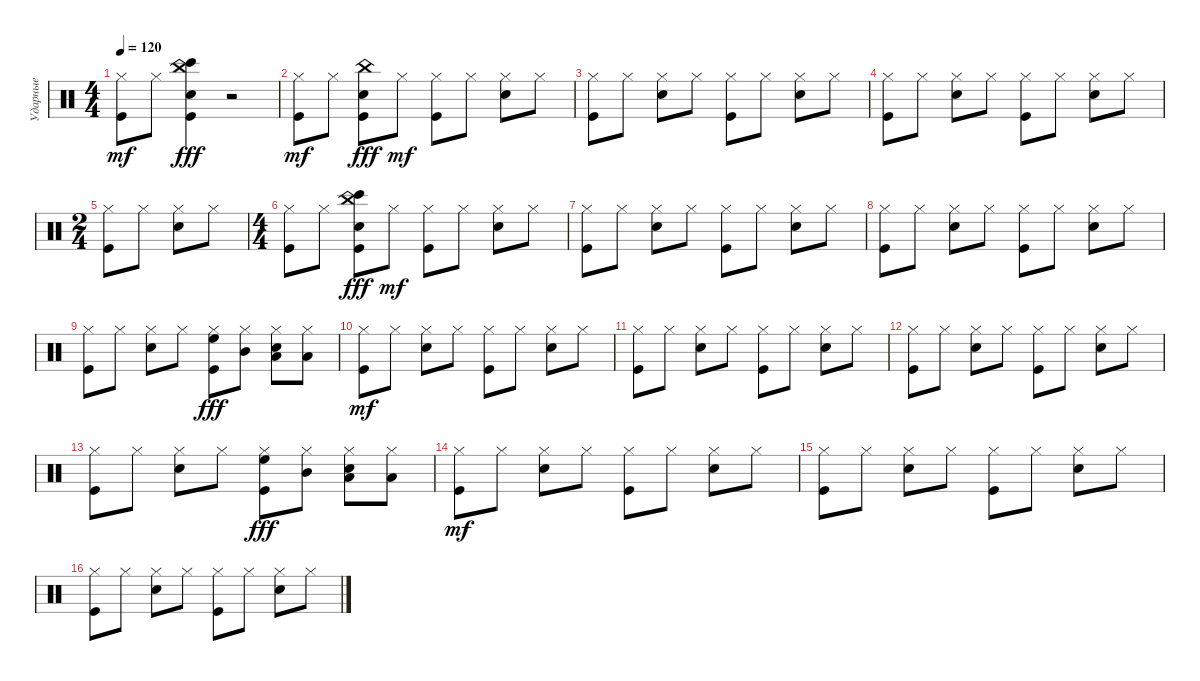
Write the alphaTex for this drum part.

\track ("Ударные" "Ударные") {instrument percussion}
\staff {score}
\articulation defaults
\ts (4 4)
\tempo 120
\clef neutral
\ks c
("Kick (hit)" "Hi-Hat (closed)").8{dy mf} "Hi-Hat (closed)".8 ("Kick (hit)" "Hand Clap (hit)" "China (hit)" "Bongo High (hit)").4{dy fff} r.2 |
("Kick (hit)" "Hi-Hat (closed)").8{dy mf} "Hi-Hat (closed)".8 ("Snare (hit) 2" "China (hit)" "Kick (hit)").8{dy fff} "Hi-Hat (closed)".8{dy mf} ("Kick (hit)" "Hi-Hat (closed)").8 "Hi-Hat (closed)".8 ("Snare (hit) 2" "Hi-Hat (closed)").8 "Hi-Hat (closed)".8 |
("Kick (hit)" "Hi-Hat (closed)").8 "Hi-Hat (closed)".8 ("Snare (hit) 2" "Hi-Hat (closed)").8 "Hi-Hat (closed)".8 ("Kick (hit)" "Hi-Hat (closed)").8 "Hi-Hat (closed)".8 ("Snare (hit) 2" "Hi-Hat (closed)").8 "Hi-Hat (closed)".8 |
("Kick (hit)" "Hi-Hat (closed)").8 "Hi-Hat (closed)".8 ("Snare (hit) 2" "Hi-Hat (closed)").8 "Hi-Hat (closed)".8 ("Kick (hit)" "Hi-Hat (closed)").8 "Hi-Hat (closed)".8 ("Snare (hit) 2" "Hi-Hat (closed)").8 "Hi-Hat (closed)".8 |
\ts (2 4)
("Kick (hit)" "Hi-Hat (closed)").8 "Hi-Hat (closed)".8 ("Snare (hit) 2" "Hi-Hat (closed)").8 "Hi-Hat (closed)".8 |
\ts (4 4)
("Kick (hit)" "Hi-Hat (closed)").8 "Hi-Hat (closed)".8 ("Snare (hit) 2" "China (hit)" "Kick (hit)" "Bongo High (hit)").8{dy fff} "Hi-Hat (closed)".8{dy mf} ("Kick (hit)" "Hi-Hat (closed)").8 "Hi-Hat (closed)".8 ("Snare (hit) 2" "Hi-Hat (closed)").8 "Hi-Hat (closed)".8 |
("Kick (hit)" "Hi-Hat (closed)").8 "Hi-Hat (closed)".8 ("Snare (hit) 2" "Hi-Hat (closed)").8 "Hi-Hat (closed)".8 ("Kick (hit)" "Hi-Hat (closed)").8 "Hi-Hat (closed)".8 ("Snare (hit) 2" "Hi-Hat (closed)").8 "Hi-Hat (closed)".8 |
("Kick (hit)" "Hi-Hat (closed)").8 "Hi-Hat (closed)".8 ("Snare (hit) 2" "Hi-Hat (closed)").8 "Hi-Hat (closed)".8 ("Kick (hit)" "Hi-Hat (closed)").8 "Hi-Hat (closed)".8 ("Snare (hit) 2" "Hi-Hat (closed)").8 "Hi-Hat (closed)".8 |
("Kick (hit)" "Hi-Hat (closed)").8 "Hi-Hat (closed)".8 ("Snare (hit) 2" "Hi-Hat (closed)").8 "Hi-Hat (closed)".8 ("Kick (hit)" "Hi-Hat (closed)" "High Floor Tom (hit)").8{dy fff} ("Hi-Hat (closed)" "Mid Tom (hit)").8 ("Snare (hit) 2" "Hi-Hat (closed)" "Low Tom (hit)").8 ("Hi-Hat (closed)" "Low Floor Tom (hit)").8 |
("Kick (hit)" "Hi-Hat (closed)").8{dy mf} "Hi-Hat (closed)".8 ("Snare (hit) 2" "Hi-Hat (closed)").8 "Hi-Hat (closed)".8 ("Kick (hit)" "Hi-Hat (closed)").8 "Hi-Hat (closed)".8 ("Snare (hit) 2" "Hi-Hat (closed)").8 "Hi-Hat (closed)".8 |
("Kick (hit)" "Hi-Hat (closed)").8 "Hi-Hat (closed)".8 ("Snare (hit) 2" "Hi-Hat (closed)").8 "Hi-Hat (closed)".8 ("Kick (hit)" "Hi-Hat (closed)").8 "Hi-Hat (closed)".8 ("Snare (hit) 2" "Hi-Hat (closed)").8 "Hi-Hat (closed)".8 |
("Kick (hit)" "Hi-Hat (closed)").8 "Hi-Hat (closed)".8 ("Snare (hit) 2" "Hi-Hat (closed)").8 "Hi-Hat (closed)".8 ("Kick (hit)" "Hi-Hat (closed)").8 "Hi-Hat (closed)".8 ("Snare (hit) 2" "Hi-Hat (closed)").8 "Hi-Hat (closed)".8 |
("Kick (hit)" "Hi-Hat (closed)").8 "Hi-Hat (closed)".8 ("Snare (hit) 2" "Hi-Hat (closed)").8 "Hi-Hat (closed)".8 ("Kick (hit)" "Hi-Hat (closed)" "High Floor Tom (hit)").8{dy fff} ("Hi-Hat (closed)" "Mid Tom (hit)").8 ("Snare (hit) 2" "Hi-Hat (closed)" "Low Tom (hit)").8 ("Hi-Hat (closed)" "Low Floor Tom (hit)").8 |
("Kick (hit)" "Hi-Hat (closed)").8{dy mf} "Hi-Hat (closed)".8 ("Snare (hit) 2" "Hi-Hat (closed)").8 "Hi-Hat (closed)".8 ("Kick (hit)" "Hi-Hat (closed)").8 "Hi-Hat (closed)".8 ("Snare (hit) 2" "Hi-Hat (closed)").8 "Hi-Hat (closed)".8 |
("Kick (hit)" "Hi-Hat (closed)").8 "Hi-Hat (closed)".8 ("Snare (hit) 2" "Hi-Hat (closed)").8 "Hi-Hat (closed)".8 ("Kick (hit)" "Hi-Hat (closed)").8 "Hi-Hat (closed)".8 ("Snare (hit) 2" "Hi-Hat (closed)").8 "Hi-Hat (closed)".8 |
("Kick (hit)" "Hi-Hat (closed)").8 "Hi-Hat (closed)".8 ("Snare (hit) 2" "Hi-Hat (closed)").8 "Hi-Hat (closed)".8 ("Kick (hit)" "Hi-Hat (closed)").8 "Hi-Hat (closed)".8 ("Snare (hit) 2" "Hi-Hat (closed)").8 "Hi-Hat (closed)".8
